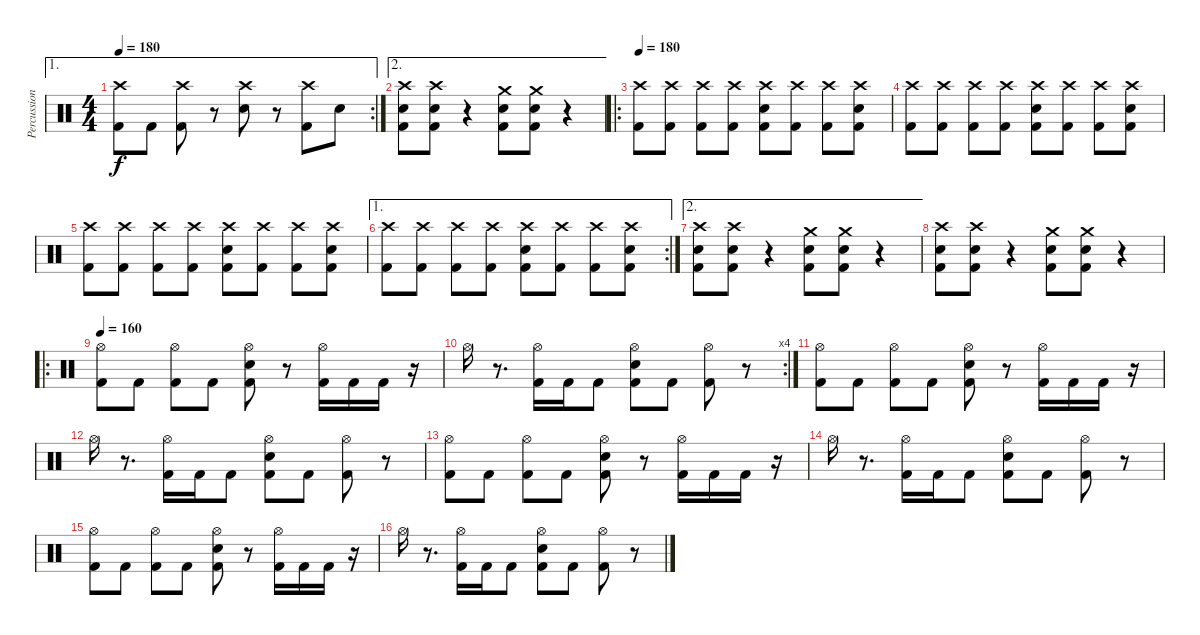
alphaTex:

\track ("Percussion" "Percussion") {instrument percussion}
\staff {score}
\articulation defaults
\ae 1
\rc 2
\ts (4 4)
\tempo 180
\clef neutral
\ks c
("Crash high (hit)" "Kick (hit) 2").8{dy f} "Kick (hit) 2".8 ("Crash high (hit)" "Kick (hit) 2").8 r.8 ("Crash high (hit)" "Snare (hit) 2").8 r.8 ("Crash high (hit)" "Kick (hit) 2").8 "Snare (hit) 2".8 |
\ae 2
("Kick (hit) 2" "Snare (hit) 2" "Crash high (hit)").8 ("Kick (hit) 2" "Snare (hit) 2" "Crash high (hit)").8 r.4 ("Kick (hit) 2" "Snare (hit) 2" "Crash medium (hit)").8 ("Kick (hit) 2" "Snare (hit) 2" "Crash medium (hit)").8 r.4 |
\ro
\tempo 180
("Crash high (hit)" "Kick (hit) 2").8 ("Crash high (hit)" "Kick (hit) 2").8 ("Crash high (hit)" "Kick (hit) 2").8 ("Crash high (hit)" "Kick (hit) 2").8 ("Crash high (hit)" "Snare (hit) 2" "Kick (hit) 2").8 ("Crash high (hit)" "Kick (hit) 2").8 ("Crash high (hit)" "Kick (hit) 2").8 ("Crash high (hit)" "Snare (hit) 2" "Kick (hit) 2").8 |
("Crash high (hit)" "Kick (hit) 2").8 ("Crash high (hit)" "Kick (hit) 2").8 ("Crash high (hit)" "Kick (hit) 2").8 ("Crash high (hit)" "Kick (hit) 2").8 ("Crash high (hit)" "Snare (hit) 2" "Kick (hit) 2").8 ("Crash high (hit)" "Kick (hit) 2").8 ("Crash high (hit)" "Kick (hit) 2").8 ("Crash high (hit)" "Snare (hit) 2" "Kick (hit) 2").8 |
("Crash high (hit)" "Kick (hit) 2").8 ("Crash high (hit)" "Kick (hit) 2").8 ("Crash high (hit)" "Kick (hit) 2").8 ("Crash high (hit)" "Kick (hit) 2").8 ("Crash high (hit)" "Snare (hit) 2" "Kick (hit) 2").8 ("Crash high (hit)" "Kick (hit) 2").8 ("Crash high (hit)" "Kick (hit) 2").8 ("Crash high (hit)" "Snare (hit) 2" "Kick (hit) 2").8 |
\ae 1
\rc 2
("Crash high (hit)" "Kick (hit) 2").8 ("Crash high (hit)" "Kick (hit) 2").8 ("Crash high (hit)" "Kick (hit) 2").8 ("Crash high (hit)" "Kick (hit) 2").8 ("Crash high (hit)" "Snare (hit) 2" "Kick (hit) 2").8 ("Crash high (hit)" "Kick (hit) 2").8 ("Crash high (hit)" "Kick (hit) 2").8 ("Crash high (hit)" "Snare (hit) 2" "Kick (hit) 2").8 |
\ae 2
("Kick (hit) 2" "Snare (hit) 2" "Crash high (hit)").8 ("Kick (hit) 2" "Snare (hit) 2" "Crash high (hit)").8 r.4 ("Kick (hit) 2" "Snare (hit) 2" "Crash medium (hit)").8 ("Kick (hit) 2" "Snare (hit) 2" "Crash medium (hit)").8 r.4 |
("Kick (hit) 2" "Snare (hit) 2" "Crash high (hit)").8 ("Kick (hit) 2" "Snare (hit) 2" "Crash high (hit)").8 r.4 ("Kick (hit) 2" "Snare (hit) 2" "Crash medium (hit)").8 ("Kick (hit) 2" "Snare (hit) 2" "Crash medium (hit)").8 r.4 |
\ro
\tempo 160
("Hi-Hat (open)" "Kick (hit) 2").8 "Kick (hit) 2".8 ("Hi-Hat (open)" "Kick (hit) 2").8 "Kick (hit) 2".8 ("Hi-Hat (open)" "Snare (hit) 2" "Kick (hit) 2").8 r.8 ("Hi-Hat (open)" "Kick (hit) 2").16 "Kick (hit) 2".16 "Kick (hit) 2".16 r.16 |
\rc 4 "Hi-Hat (open)".16
r.8{d} ("Hi-Hat (open)" "Kick (hit) 2").16 "Kick (hit) 2".16 "Kick (hit) 2".8 ("Hi-Hat (open)" "Snare (hit) 2" "Kick (hit) 2").8 "Kick (hit) 2".8 ("Hi-Hat (open)" "Kick (hit) 2").8 r.8 |
("Hi-Hat (open)" "Kick (hit) 2").8 "Kick (hit) 2".8 ("Hi-Hat (open)" "Kick (hit) 2").8 "Kick (hit) 2".8 ("Hi-Hat (open)" "Snare (hit) 2" "Kick (hit) 2").8 r.8 ("Hi-Hat (open)" "Kick (hit) 2").16 "Kick (hit) 2".16 "Kick (hit) 2".16 r.16 |
"Hi-Hat (open)".16 r.8{d} ("Hi-Hat (open)" "Kick (hit) 2").16 "Kick (hit) 2".16 "Kick (hit) 2".8 ("Hi-Hat (open)" "Snare (hit) 2" "Kick (hit) 2").8 "Kick (hit) 2".8 ("Hi-Hat (open)" "Kick (hit) 2").8 r.8 |
("Hi-Hat (open)" "Kick (hit) 2").8 "Kick (hit) 2".8 ("Hi-Hat (open)" "Kick (hit) 2").8 "Kick (hit) 2".8 ("Hi-Hat (open)" "Snare (hit) 2" "Kick (hit) 2").8 r.8 ("Hi-Hat (open)" "Kick (hit) 2").16 "Kick (hit) 2".16 "Kick (hit) 2".16 r.16 |
"Hi-Hat (open)".16 r.8{d} ("Hi-Hat (open)" "Kick (hit) 2").16 "Kick (hit) 2".16 "Kick (hit) 2".8 ("Hi-Hat (open)" "Snare (hit) 2" "Kick (hit) 2").8 "Kick (hit) 2".8 ("Hi-Hat (open)" "Kick (hit) 2").8 r.8 |
("Hi-Hat (open)" "Kick (hit) 2").8 "Kick (hit) 2".8 ("Hi-Hat (open)" "Kick (hit) 2").8 "Kick (hit) 2".8 ("Hi-Hat (open)" "Snare (hit) 2" "Kick (hit) 2").8 r.8 ("Hi-Hat (open)" "Kick (hit) 2").16 "Kick (hit) 2".16 "Kick (hit) 2".16 r.16 |
"Hi-Hat (open)".16 r.8{d} ("Hi-Hat (open)" "Kick (hit) 2").16 "Kick (hit) 2".16 "Kick (hit) 2".8 ("Hi-Hat (open)" "Snare (hit) 2" "Kick (hit) 2").8 "Kick (hit) 2".8 ("Hi-Hat (open)" "Kick (hit) 2").8 r.8
